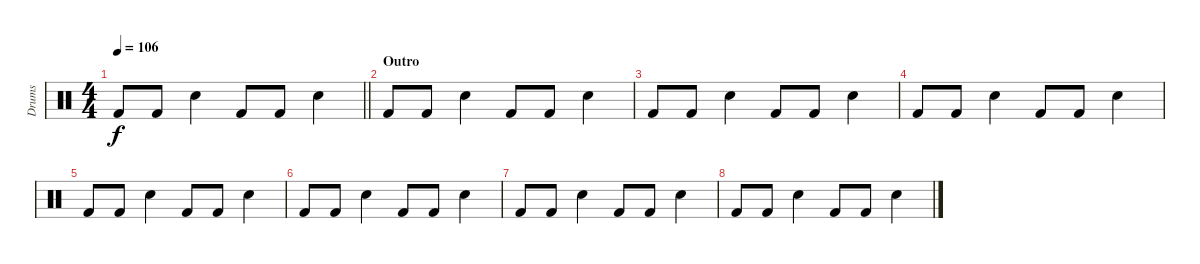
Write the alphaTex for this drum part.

\track ("Drums" "Drums") {instrument percussion}
\staff {score}
\articulation defaults
\ts (4 4)
\tempo 106
\clef neutral
\barLineRight lightlight
\ks c "Kick (hit) 2".8{dy f} "Kick (hit) 2".8 "Snare (hit) 2".4 "Kick (hit) 2".8 "Kick (hit) 2".8 "Snare (hit) 2".4
|
\section ("" "Outro")
"Kick (hit) 2".8 "Kick (hit) 2".8 "Snare (hit) 2".4 "Kick (hit) 2".8 "Kick (hit) 2".8 "Snare (hit) 2".4 |
"Kick (hit) 2".8 "Kick (hit) 2".8 "Snare (hit) 2".4 "Kick (hit) 2".8 "Kick (hit) 2".8 "Snare (hit) 2".4 |
"Kick (hit) 2".8 "Kick (hit) 2".8 "Snare (hit) 2".4 "Kick (hit) 2".8 "Kick (hit) 2".8 "Snare (hit) 2".4 |
"Kick (hit) 2".8 "Kick (hit) 2".8 "Snare (hit) 2".4 "Kick (hit) 2".8 "Kick (hit) 2".8 "Snare (hit) 2".4 |
"Kick (hit) 2".8{volume 5} "Kick (hit) 2".8 "Snare (hit) 2".4 "Kick (hit) 2".8 "Kick (hit) 2".8 "Snare (hit) 2".4 |
"Kick (hit) 2".8{volume 3} "Kick (hit) 2".8 "Snare (hit) 2".4 "Kick (hit) 2".8 "Kick (hit) 2".8 "Snare (hit) 2".4 |
"Kick (hit) 2".8{volume 2} "Kick (hit) 2".8 "Snare (hit) 2".4 "Kick (hit) 2".8 "Kick (hit) 2".8 "Snare (hit) 2".4
